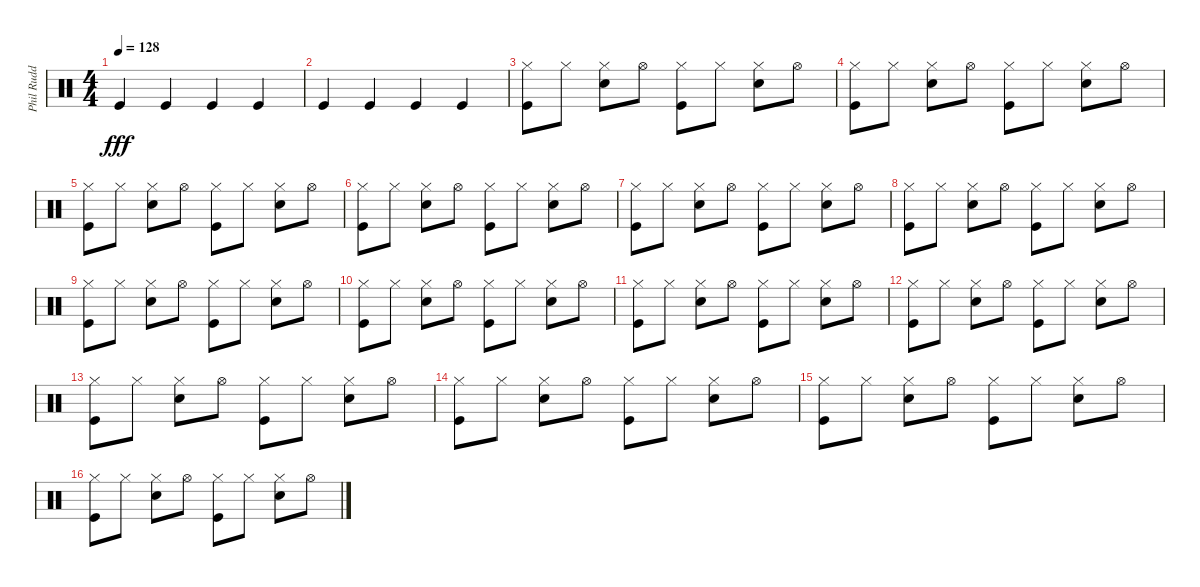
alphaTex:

\track ("Phil Rudd" "Phil Rudd") {instrument percussion}
\staff {score}
\articulation defaults
\ts (4 4)
\tempo 128
\clef neutral
\ks c "Kick (hit)".4{dy fff} "Kick (hit)".4 "Kick (hit)".4 "Kick (hit)".4
|
"Kick (hit)".4 "Kick (hit)".4 "Kick (hit)".4 "Kick (hit)".4 |
("Hi-Hat (closed)" "Kick (hit)").8 "Hi-Hat (closed)".8 ("Hi-Hat (closed)" "Snare (hit) 2").8 "Hi-Hat (open)".8 ("Hi-Hat (closed)" "Kick (hit)").8 "Hi-Hat (closed)".8 ("Hi-Hat (closed)" "Snare (hit) 2").8 "Hi-Hat (open)".8 |
("Hi-Hat (closed)" "Kick (hit)").8 "Hi-Hat (closed)".8 ("Hi-Hat (closed)" "Snare (hit) 2").8 "Hi-Hat (open)".8 ("Hi-Hat (closed)" "Kick (hit)").8 "Hi-Hat (closed)".8 ("Hi-Hat (closed)" "Snare (hit) 2").8 "Hi-Hat (open)".8 |
("Hi-Hat (closed)" "Kick (hit)").8 "Hi-Hat (closed)".8 ("Hi-Hat (closed)" "Snare (hit) 2").8 "Hi-Hat (open)".8 ("Hi-Hat (closed)" "Kick (hit)").8 "Hi-Hat (closed)".8 ("Hi-Hat (closed)" "Snare (hit) 2").8 "Hi-Hat (open)".8 |
("Hi-Hat (closed)" "Kick (hit)").8 "Hi-Hat (closed)".8 ("Hi-Hat (closed)" "Snare (hit) 2").8 "Hi-Hat (open)".8 ("Hi-Hat (closed)" "Kick (hit)").8 "Hi-Hat (closed)".8 ("Hi-Hat (closed)" "Snare (hit) 2").8 "Hi-Hat (open)".8 |
("Hi-Hat (closed)" "Kick (hit)").8 "Hi-Hat (closed)".8 ("Hi-Hat (closed)" "Snare (hit) 2").8 "Hi-Hat (open)".8 ("Hi-Hat (closed)" "Kick (hit)").8 "Hi-Hat (closed)".8 ("Hi-Hat (closed)" "Snare (hit) 2").8 "Hi-Hat (open)".8 |
("Hi-Hat (closed)" "Kick (hit)").8 "Hi-Hat (closed)".8 ("Hi-Hat (closed)" "Snare (hit) 2").8 "Hi-Hat (open)".8 ("Hi-Hat (closed)" "Kick (hit)").8 "Hi-Hat (closed)".8 ("Hi-Hat (closed)" "Snare (hit) 2").8 "Hi-Hat (open)".8 |
("Hi-Hat (closed)" "Kick (hit)").8 "Hi-Hat (closed)".8 ("Hi-Hat (closed)" "Snare (hit) 2").8 "Hi-Hat (open)".8 ("Hi-Hat (closed)" "Kick (hit)").8 "Hi-Hat (closed)".8 ("Hi-Hat (closed)" "Snare (hit) 2").8 "Hi-Hat (open)".8 |
("Hi-Hat (closed)" "Kick (hit)").8 "Hi-Hat (closed)".8 ("Hi-Hat (closed)" "Snare (hit) 2").8 "Hi-Hat (open)".8 ("Hi-Hat (closed)" "Kick (hit)").8 "Hi-Hat (closed)".8 ("Hi-Hat (closed)" "Snare (hit) 2").8 "Hi-Hat (open)".8 |
("Hi-Hat (closed)" "Kick (hit)").8 "Hi-Hat (closed)".8 ("Hi-Hat (closed)" "Snare (hit) 2").8 "Hi-Hat (open)".8 ("Hi-Hat (closed)" "Kick (hit)").8 "Hi-Hat (closed)".8 ("Hi-Hat (closed)" "Snare (hit) 2").8 "Hi-Hat (open)".8 |
("Hi-Hat (closed)" "Kick (hit)").8 "Hi-Hat (closed)".8 ("Hi-Hat (closed)" "Snare (hit) 2").8 "Hi-Hat (open)".8 ("Hi-Hat (closed)" "Kick (hit)").8 "Hi-Hat (closed)".8 ("Hi-Hat (closed)" "Snare (hit) 2").8 "Hi-Hat (open)".8 |
("Hi-Hat (closed)" "Kick (hit)").8 "Hi-Hat (closed)".8 ("Hi-Hat (closed)" "Snare (hit) 2").8 "Hi-Hat (open)".8 ("Hi-Hat (closed)" "Kick (hit)").8 "Hi-Hat (closed)".8 ("Hi-Hat (closed)" "Snare (hit) 2").8 "Hi-Hat (open)".8 |
("Hi-Hat (closed)" "Kick (hit)").8 "Hi-Hat (closed)".8 ("Hi-Hat (closed)" "Snare (hit) 2").8 "Hi-Hat (open)".8 ("Hi-Hat (closed)" "Kick (hit)").8 "Hi-Hat (closed)".8 ("Hi-Hat (closed)" "Snare (hit) 2").8 "Hi-Hat (open)".8 |
("Hi-Hat (closed)" "Kick (hit)").8 "Hi-Hat (closed)".8 ("Hi-Hat (closed)" "Snare (hit) 2").8 "Hi-Hat (open)".8 ("Hi-Hat (closed)" "Kick (hit)").8 "Hi-Hat (closed)".8 ("Hi-Hat (closed)" "Snare (hit) 2").8 "Hi-Hat (open)".8 |
("Hi-Hat (closed)" "Kick (hit)").8 "Hi-Hat (closed)".8 ("Hi-Hat (closed)" "Snare (hit) 2").8 "Hi-Hat (open)".8 ("Hi-Hat (closed)" "Kick (hit)").8 "Hi-Hat (closed)".8 ("Hi-Hat (closed)" "Snare (hit) 2").8 "Hi-Hat (open)".8
